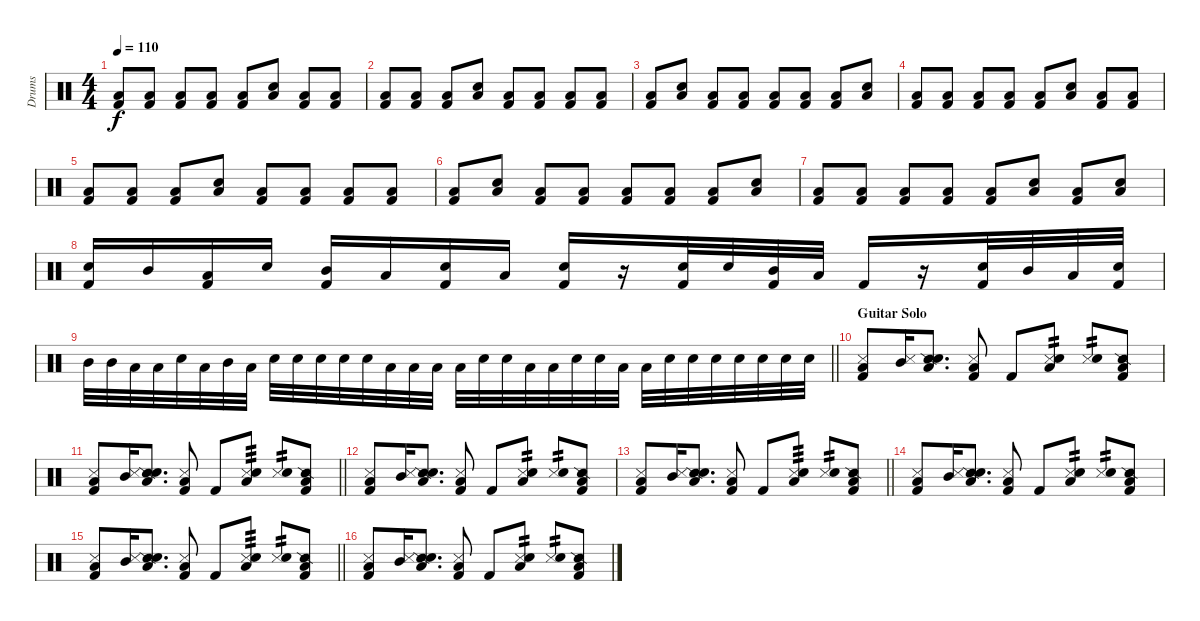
\track ("Drums" "Drums") {instrument percussion}
\staff {score}
\articulation defaults
\ts (4 4)
\tempo 110
\clef neutral
\ks c
("Low Floor Tom (hit)" "Kick (hit) 2").8{dy f} ("Low Floor Tom (hit)" "Kick (hit) 2").8 ("Low Floor Tom (hit)" "Kick (hit) 2").8 ("Low Floor Tom (hit)" "Kick (hit) 2").8 ("Low Floor Tom (hit)" "Kick (hit) 2").8 ("Low Floor Tom (hit)" "Snare (hit) 2").8 ("Low Floor Tom (hit)" "Kick (hit) 2").8 ("Low Floor Tom (hit)" "Kick (hit) 2").8 |
("Low Floor Tom (hit)" "Kick (hit) 2").8 ("Low Floor Tom (hit)" "Kick (hit) 2").8 ("Low Floor Tom (hit)" "Kick (hit) 2").8 ("Low Floor Tom (hit)" "Snare (hit) 2").8 ("Low Floor Tom (hit)" "Kick (hit) 2").8 ("Low Floor Tom (hit)" "Kick (hit) 2").8 ("Low Floor Tom (hit)" "Kick (hit) 2").8 ("Low Floor Tom (hit)" "Kick (hit) 2").8 |
("Low Floor Tom (hit)" "Kick (hit) 2").8 ("Low Floor Tom (hit)" "Snare (hit) 2").8 ("Low Floor Tom (hit)" "Kick (hit) 2").8 ("Low Floor Tom (hit)" "Kick (hit) 2").8 ("Low Floor Tom (hit)" "Kick (hit) 2").8 ("Low Floor Tom (hit)" "Kick (hit) 2").8 ("Low Floor Tom (hit)" "Kick (hit) 2").8 ("Low Floor Tom (hit)" "Snare (hit) 2").8 |
("Low Floor Tom (hit)" "Kick (hit) 2").8 ("Low Floor Tom (hit)" "Kick (hit) 2").8 ("Low Floor Tom (hit)" "Kick (hit) 2").8 ("Low Floor Tom (hit)" "Kick (hit) 2").8 ("Low Floor Tom (hit)" "Kick (hit) 2").8 ("Low Floor Tom (hit)" "Snare (hit) 2").8 ("Low Floor Tom (hit)" "Kick (hit) 2").8 ("Low Floor Tom (hit)" "Kick (hit) 2").8 |
("Low Floor Tom (hit)" "Kick (hit) 2").8 ("Low Floor Tom (hit)" "Kick (hit) 2").8 ("Low Floor Tom (hit)" "Kick (hit) 2").8 ("Low Floor Tom (hit)" "Snare (hit) 2").8 ("Low Floor Tom (hit)" "Kick (hit) 2").8 ("Low Floor Tom (hit)" "Kick (hit) 2").8 ("Low Floor Tom (hit)" "Kick (hit) 2").8 ("Low Floor Tom (hit)" "Kick (hit) 2").8 |
("Low Floor Tom (hit)" "Kick (hit) 2").8 ("Low Floor Tom (hit)" "Snare (hit) 2").8 ("Low Floor Tom (hit)" "Kick (hit) 2").8 ("Low Floor Tom (hit)" "Kick (hit) 2").8 ("Low Floor Tom (hit)" "Kick (hit) 2").8 ("Low Floor Tom (hit)" "Kick (hit) 2").8 ("Low Floor Tom (hit)" "Kick (hit) 2").8 ("Low Floor Tom (hit)" "Snare (hit) 2").8 |
("Low Floor Tom (hit)" "Kick (hit) 2").8 ("Low Floor Tom (hit)" "Kick (hit) 2").8 ("Low Floor Tom (hit)" "Kick (hit) 2").8 ("Low Floor Tom (hit)" "Kick (hit) 2").8 ("Low Floor Tom (hit)" "Kick (hit) 2").8 ("Low Floor Tom (hit)" "Snare (hit) 2").8 ("Low Floor Tom (hit)" "Kick (hit) 2").8 ("Low Floor Tom (hit)" "Snare (hit) 2").8 |
("Snare (hit) 2" "Kick (hit) 2").16 "Mid Tom (hit)".16 ("Low Tom (hit)" "Kick (hit) 2").16 "Snare (hit) 2".16 ("Mid Tom (hit)" "Kick (hit) 2").16 "Low Tom (hit)".16 ("Snare (hit) 2" "Kick (hit) 2").16 "Low Tom (hit)".16 ("Snare (hit) 2" "Kick (hit) 2").16 r.16 ("Snare (hit) 2" "Kick (hit) 2").32 "Snare (hit) 2".32 ("Mid Tom (hit)" "Kick (hit) 2").32 "Low Tom (hit)".32 "Kick (hit) 2".16 r.16 ("Snare (hit) 2" "Kick (hit) 2").32 "Mid Tom (hit)".32 "Low Tom (hit)".32 ("Snare (hit) 2" "Kick (hit) 2").32 |
\barLineRight lightlight "Mid Tom (hit)".32 "Mid Tom (hit)".32 "Low Tom (hit)".32 "Low Tom (hit)".32 "Snare (hit) 2".32 "Low Tom (hit)".32 "Mid Tom (hit)".32 "Low Tom (hit)".32 "Snare (hit) 2".32 "Snare (hit) 2".32 "Snare (hit) 2".32 "Snare (hit) 2".32 "Snare (hit) 2".32 "Low Tom (hit)".32 "Low Tom (hit)".32 "Low Tom (hit)".32 "Low Tom (hit)".32 "Snare (hit) 2".32 "Snare (hit) 2".32 "Low Tom (hit)".32 "Low Tom (hit)".32 "Snare (hit) 2".32 "Snare (hit) 2".32 "Low Tom (hit)".32 "Low Tom (hit)".32 "Snare (hit) 2".32 "Snare (hit) 2".32 "Snare (hit) 2".32 "Snare (hit) 2".32 "Snare (hit) 2".32 "Snare (hit) 2".32 "Snare (hit) 2".32
|
\section ("" "Guitar Solo")
("Snare (side stick) 3" "Low Tom (hit)" "Kick (hit) 2").8 ("Snare (side stick) 3" "Mid Tom (hit)").16 ("Snare (side stick) 2" "Low Tom (hit)" "Snare (hit) 2").8{d} ("Snare (side stick) 3" "Low Tom (hit)" "Kick (hit) 2").8 "Kick (hit) 2".8 ("Snare (side stick) 3" "Low Tom (hit)" "Snare (hit) 2").8{tp 2} ("Snare (side stick) 3" "Snare (hit) 2").8{tp 2} ("Snare (side stick) 2" "Low Tom (hit)" "Kick (hit) 2").8 |
\barLineRight lightlight
("Snare (side stick) 3" "Low Tom (hit)" "Kick (hit) 2").8 ("Snare (side stick) 3" "Mid Tom (hit)").16 ("Snare (side stick) 2" "Low Tom (hit)" "Snare (hit) 2").8{d} ("Snare (side stick) 3" "Low Tom (hit)" "Kick (hit) 2").8 "Kick (hit) 2".8 ("Snare (side stick) 3" "Low Tom (hit)" "Snare (hit) 2").8{tp 3} ("Snare (side stick) 3" "Snare (hit) 2").8{tp 2} ("Snare (side stick) 2" "Low Tom (hit)" "Kick (hit) 2").8 |
("Snare (side stick) 3" "Low Tom (hit)" "Kick (hit) 2").8 ("Snare (side stick) 3" "Mid Tom (hit)").16 ("Snare (side stick) 2" "Low Tom (hit)" "Snare (hit) 2").8{d} ("Snare (side stick) 3" "Low Tom (hit)" "Kick (hit) 2").8 "Kick (hit) 2".8 ("Snare (side stick) 3" "Low Tom (hit)" "Snare (hit) 2").8{tp 2} ("Snare (side stick) 3" "Snare (hit) 2").8{tp 2} ("Snare (side stick) 2" "Low Tom (hit)" "Kick (hit) 2").8 |
\barLineRight lightlight
("Snare (side stick) 3" "Low Tom (hit)" "Kick (hit) 2").8 ("Snare (side stick) 3" "Mid Tom (hit)").16 ("Snare (side stick) 2" "Low Tom (hit)" "Snare (hit) 2").8{d} ("Snare (side stick) 3" "Low Tom (hit)" "Kick (hit) 2").8 "Kick (hit) 2".8 ("Snare (side stick) 3" "Low Tom (hit)" "Snare (hit) 2").8{tp 3} ("Snare (side stick) 3" "Snare (hit) 2").8{tp 2} ("Snare (side stick) 2" "Low Tom (hit)" "Kick (hit) 2").8 |
("Snare (side stick) 3" "Low Tom (hit)" "Kick (hit) 2").8 ("Snare (side stick) 3" "Mid Tom (hit)").16 ("Snare (side stick) 2" "Low Tom (hit)" "Snare (hit) 2").8{d} ("Snare (side stick) 3" "Low Tom (hit)" "Kick (hit) 2").8 "Kick (hit) 2".8 ("Snare (side stick) 3" "Low Tom (hit)" "Snare (hit) 2").8{tp 2} ("Snare (side stick) 3" "Snare (hit) 2").8{tp 2} ("Snare (side stick) 2" "Low Tom (hit)" "Kick (hit) 2").8 |
\barLineRight lightlight
("Snare (side stick) 3" "Low Tom (hit)" "Kick (hit) 2").8 ("Snare (side stick) 3" "Mid Tom (hit)").16 ("Snare (side stick) 2" "Low Tom (hit)" "Snare (hit) 2").8{d} ("Snare (side stick) 3" "Low Tom (hit)" "Kick (hit) 2").8 "Kick (hit) 2".8 ("Snare (side stick) 3" "Low Tom (hit)" "Snare (hit) 2").8{tp 3} ("Snare (side stick) 3" "Snare (hit) 2").8{tp 2} ("Snare (side stick) 2" "Low Tom (hit)" "Kick (hit) 2").8 |
("Snare (side stick) 3" "Low Tom (hit)" "Kick (hit) 2").8 ("Snare (side stick) 3" "Mid Tom (hit)").16 ("Snare (side stick) 2" "Low Tom (hit)" "Snare (hit) 2").8{d} ("Snare (side stick) 3" "Low Tom (hit)" "Kick (hit) 2").8 "Kick (hit) 2".8 ("Snare (side stick) 3" "Low Tom (hit)" "Snare (hit) 2").8{tp 2} ("Snare (side stick) 3" "Snare (hit) 2").8{tp 2} ("Snare (side stick) 2" "Low Tom (hit)" "Kick (hit) 2").8
